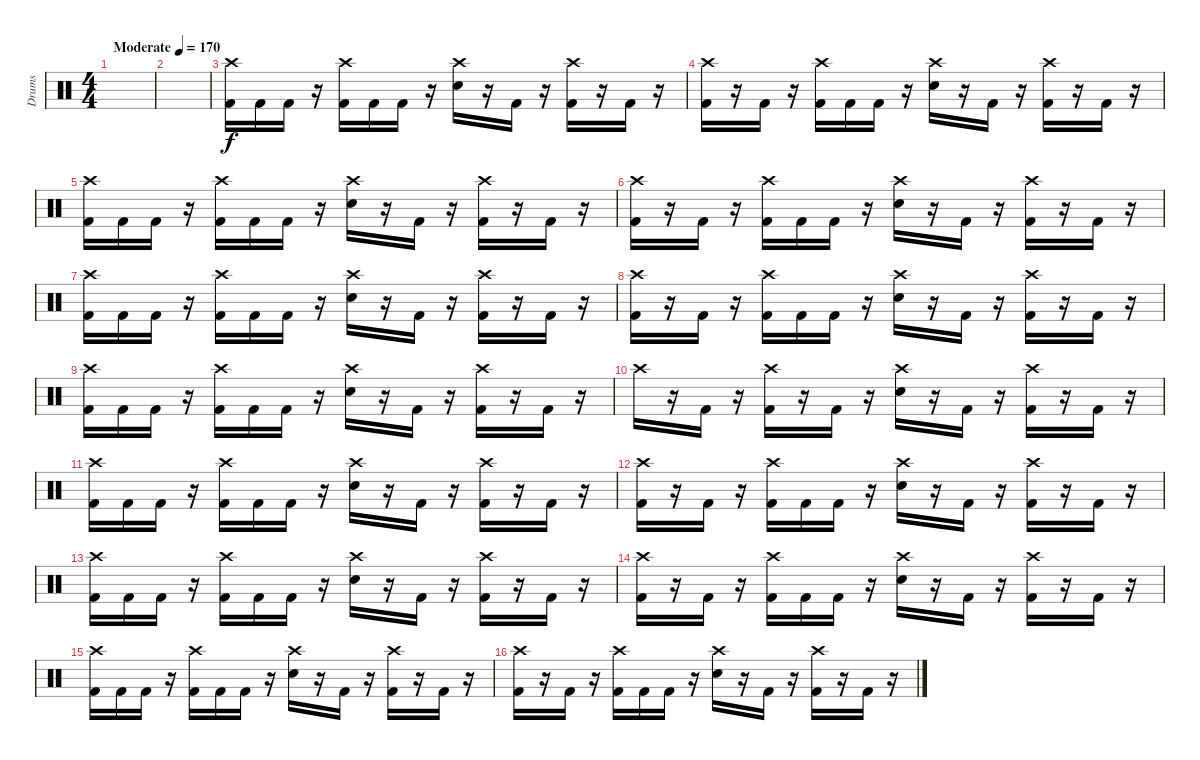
\track ("Drums" "Drums") {instrument percussion}
\staff {score}
\articulation defaults
\ts (4 4)
\tempo (170 "Moderate")
\clef neutral
\ks c
|
|
("Crash high (hit)" "Kick (hit) 2").16 "Kick (hit) 2".16 "Kick (hit) 2".16 r.16 ("Crash high (hit)" "Kick (hit) 2").16 "Kick (hit) 2".16 "Kick (hit) 2".16 r.16 ("Crash high (hit)" "Electric Snare (hit)").16 r.16 "Kick (hit) 2".16 r.16 ("Crash high (hit)" "Kick (hit) 2").16 r.16 "Kick (hit) 2".16 r.16 |
("Crash high (hit)" "Kick (hit) 2").16 r.16 "Kick (hit) 2".16 r.16 ("Crash high (hit)" "Kick (hit) 2").16 "Kick (hit) 2".16 "Kick (hit) 2".16 r.16 ("Crash high (hit)" "Electric Snare (hit)").16 r.16 "Kick (hit) 2".16 r.16 ("Crash high (hit)" "Kick (hit) 2").16 r.16 "Kick (hit) 2".16 r.16 |
("Crash high (hit)" "Kick (hit) 2").16 "Kick (hit) 2".16 "Kick (hit) 2".16 r.16 ("Crash high (hit)" "Kick (hit) 2").16 "Kick (hit) 2".16 "Kick (hit) 2".16 r.16 ("Crash high (hit)" "Electric Snare (hit)").16 r.16 "Kick (hit) 2".16 r.16 ("Crash high (hit)" "Kick (hit) 2").16 r.16 "Kick (hit) 2".16 r.16 |
("Crash high (hit)" "Kick (hit) 2").16 r.16 "Kick (hit) 2".16 r.16 ("Crash high (hit)" "Kick (hit) 2").16 "Kick (hit) 2".16 "Kick (hit) 2".16 r.16 ("Crash high (hit)" "Electric Snare (hit)").16 r.16 "Kick (hit) 2".16 r.16 ("Crash high (hit)" "Kick (hit) 2").16 r.16 "Kick (hit) 2".16 r.16 |
("Crash high (hit)" "Kick (hit) 2").16 "Kick (hit) 2".16 "Kick (hit) 2".16 r.16 ("Crash high (hit)" "Kick (hit) 2").16 "Kick (hit) 2".16 "Kick (hit) 2".16 r.16 ("Crash high (hit)" "Electric Snare (hit)").16 r.16 "Kick (hit) 2".16 r.16 ("Crash high (hit)" "Kick (hit) 2").16 r.16 "Kick (hit) 2".16 r.16 |
("Crash high (hit)" "Kick (hit) 2").16 r.16 "Kick (hit) 2".16 r.16 ("Crash high (hit)" "Kick (hit) 2").16 "Kick (hit) 2".16 "Kick (hit) 2".16 r.16 ("Crash high (hit)" "Electric Snare (hit)").16 r.16 "Kick (hit) 2".16 r.16 ("Crash high (hit)" "Kick (hit) 2").16 r.16 "Kick (hit) 2".16 r.16 |
("Crash high (hit)" "Kick (hit) 2").16 "Kick (hit) 2".16 "Kick (hit) 2".16 r.16 ("Crash high (hit)" "Kick (hit) 2").16 "Kick (hit) 2".16 "Kick (hit) 2".16 r.16 ("Crash high (hit)" "Electric Snare (hit)").16 r.16 "Kick (hit) 2".16 r.16 ("Crash high (hit)" "Kick (hit) 2").16 r.16 "Kick (hit) 2".16 r.16 |
"Crash high (hit)".16 r.16 "Kick (hit) 2".16 r.16 ("Crash high (hit)" "Kick (hit) 2").16 r.16 "Kick (hit) 2".16 r.16 ("Crash high (hit)" "Electric Snare (hit)").16 r.16 "Kick (hit) 2".16 r.16 ("Crash high (hit)" "Kick (hit) 2").16 r.16 "Kick (hit) 2".16 r.16 |
("Crash high (hit)" "Kick (hit) 2").16 "Kick (hit) 2".16 "Kick (hit) 2".16 r.16 ("Crash high (hit)" "Kick (hit) 2").16 "Kick (hit) 2".16 "Kick (hit) 2".16 r.16 ("Crash high (hit)" "Electric Snare (hit)").16 r.16 "Kick (hit) 2".16 r.16 ("Crash high (hit)" "Kick (hit) 2").16 r.16 "Kick (hit) 2".16 r.16 |
("Crash high (hit)" "Kick (hit) 2").16 r.16 "Kick (hit) 2".16 r.16 ("Crash high (hit)" "Kick (hit) 2").16 "Kick (hit) 2".16 "Kick (hit) 2".16 r.16 ("Crash high (hit)" "Electric Snare (hit)").16 r.16 "Kick (hit) 2".16 r.16 ("Crash high (hit)" "Kick (hit) 2").16 r.16 "Kick (hit) 2".16 r.16 |
("Crash high (hit)" "Kick (hit) 2").16 "Kick (hit) 2".16 "Kick (hit) 2".16 r.16 ("Crash high (hit)" "Kick (hit) 2").16 "Kick (hit) 2".16 "Kick (hit) 2".16 r.16 ("Crash high (hit)" "Electric Snare (hit)").16 r.16 "Kick (hit) 2".16 r.16 ("Crash high (hit)" "Kick (hit) 2").16 r.16 "Kick (hit) 2".16 r.16 |
("Crash high (hit)" "Kick (hit) 2").16 r.16 "Kick (hit) 2".16 r.16 ("Crash high (hit)" "Kick (hit) 2").16 "Kick (hit) 2".16 "Kick (hit) 2".16 r.16 ("Crash high (hit)" "Electric Snare (hit)").16 r.16 "Kick (hit) 2".16 r.16 ("Crash high (hit)" "Kick (hit) 2").16 r.16 "Kick (hit) 2".16 r.16 |
("Crash high (hit)" "Kick (hit) 2").16 "Kick (hit) 2".16 "Kick (hit) 2".16 r.16 ("Crash high (hit)" "Kick (hit) 2").16 "Kick (hit) 2".16 "Kick (hit) 2".16 r.16 ("Crash high (hit)" "Electric Snare (hit)").16 r.16 "Kick (hit) 2".16 r.16 ("Crash high (hit)" "Kick (hit) 2").16 r.16 "Kick (hit) 2".16 r.16 |
("Crash high (hit)" "Kick (hit) 2").16 r.16 "Kick (hit) 2".16 r.16 ("Crash high (hit)" "Kick (hit) 2").16 "Kick (hit) 2".16 "Kick (hit) 2".16 r.16 ("Crash high (hit)" "Electric Snare (hit)").16 r.16 "Kick (hit) 2".16 r.16 ("Crash high (hit)" "Kick (hit) 2").16 r.16 "Kick (hit) 2".16 r.16
